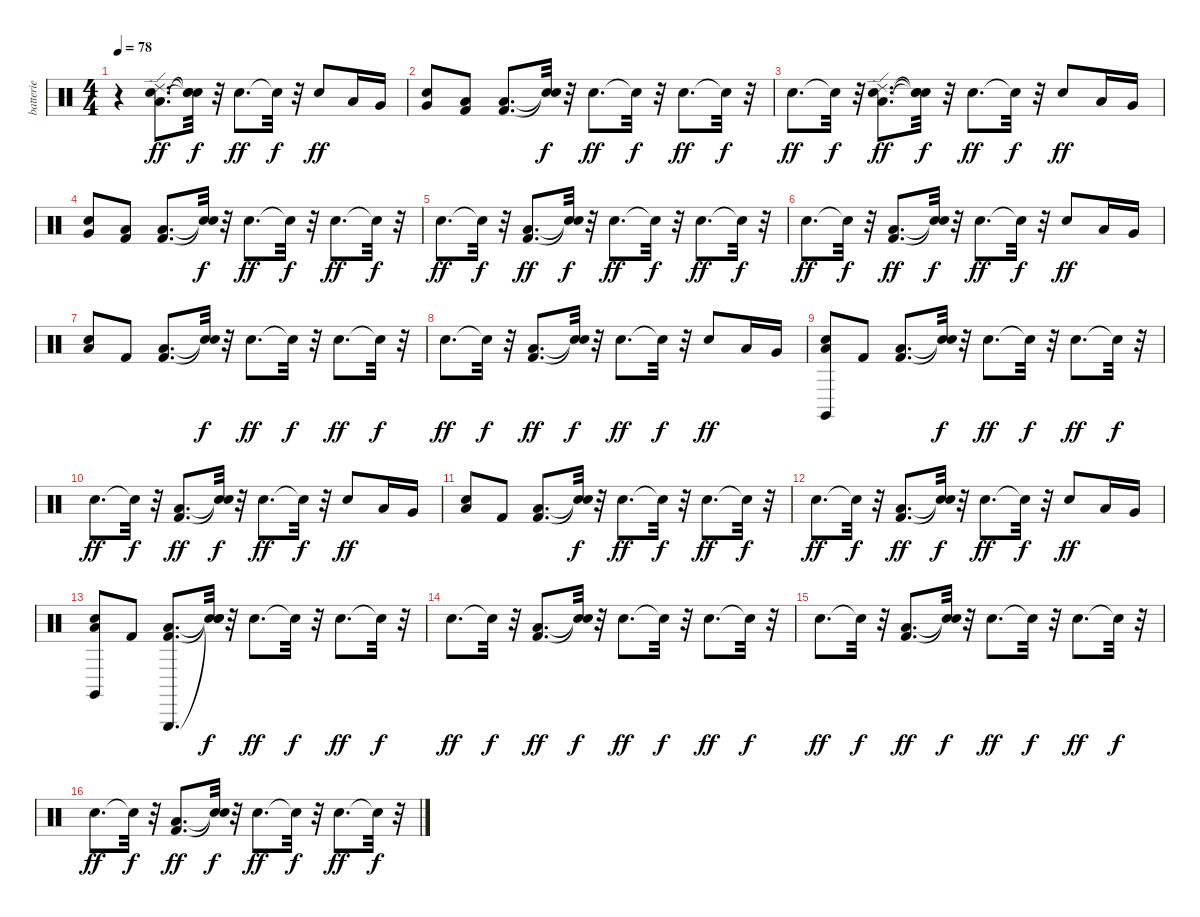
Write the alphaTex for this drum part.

\track ("batterie" "batterie") {instrument percussion}
\staff {score}
\articulation defaults
\ts (4 4)
\tempo 78
\clef neutral
\ks c
r.4{dy ff} ("Hand Clap (hit)" "Low Tom (hit)" "Ride (edge) 2").8{d} ("Snare (hit)"{t} "Snare (hit)"{t} "Snare (hit)"{t}).32{dy f} r.32 "Hand Clap (hit)".8{d dy ff} "Snare (hit)"{t}.32{dy f} r.32 "Hand Clap (hit)".8{dy ff} "Low Tom (hit)".16 "Very Low Tom (hit)".16 |
("Hand Clap (hit)" "Very Low Tom (hit)").8 ("Kick (hit) 2" "Low Floor Tom (hit)").8 ("Kick (hit) 2" "Low Floor Tom (hit)").8{d} ("Snare (hit)"{t} "Snare (hit)"{t}).32{dy f} r.32 "Hand Clap (hit)".8{d dy ff} "Snare (hit)"{t}.32{dy f} r.32 "Hand Clap (hit)".8{d dy ff} "Snare (hit)"{t}.32{dy f} r.32 |
"Hand Clap (hit)".8{d dy ff} "Snare (hit)"{t}.32{dy f} r.32 ("Hand Clap (hit)" "Low Tom (hit)" "Ride (edge) 2").8{d dy ff} ("Snare (hit)"{t} "Snare (hit)"{t} "Snare (hit)"{t}).32{dy f} r.32 "Hand Clap (hit)".8{d dy ff} "Snare (hit)"{t}.32{dy f} r.32 "Hand Clap (hit)".8{dy ff} "Low Tom (hit)".16 "Very Low Tom (hit)".16 |
("Hand Clap (hit)" "Very Low Tom (hit)").8 ("Kick (hit) 2" "Low Floor Tom (hit)").8 ("Kick (hit) 2" "Low Floor Tom (hit)").8{d} ("Snare (hit)"{t} "Snare (hit)"{t}).32{dy f} r.32 "Hand Clap (hit)".8{d dy ff} "Snare (hit)"{t}.32{dy f} r.32 "Hand Clap (hit)".8{d dy ff} "Snare (hit)"{t}.32{dy f} r.32 |
"Hand Clap (hit)".8{d dy ff} "Snare (hit)"{t}.32{dy f} r.32 ("Kick (hit) 2" "Low Floor Tom (hit)").8{d dy ff} ("Snare (hit)"{t} "Snare (hit)"{t}).32{dy f} r.32 "Hand Clap (hit)".8{d dy ff} "Snare (hit)"{t}.32{dy f} r.32 "Hand Clap (hit)".8{d dy ff} "Snare (hit)"{t}.32{dy f} r.32 |
"Hand Clap (hit)".8{d dy ff} "Snare (hit)"{t}.32{dy f} r.32 ("Kick (hit) 2" "Low Floor Tom (hit)").8{d dy ff} ("Snare (hit)"{t} "Snare (hit)"{t}).32{dy f} r.32 "Hand Clap (hit)".8{d dy ff} "Snare (hit)"{t}.32{dy f} r.32 "Hand Clap (hit)".8{dy ff} "Low Tom (hit)".16 "Very Low Tom (hit)".16 |
("Hand Clap (hit)" "Low Floor Tom (hit)").8 "Kick (hit) 2".8 ("Kick (hit) 2" "Low Floor Tom (hit)").8{d} ("Snare (hit)"{t} "Snare (hit)"{t}).32{dy f} r.32 "Hand Clap (hit)".8{d dy ff} "Snare (hit)"{t}.32{dy f} r.32 "Hand Clap (hit)".8{d dy ff} "Snare (hit)"{t}.32{dy f} r.32 |
"Hand Clap (hit)".8{d dy ff} "Snare (hit)"{t}.32{dy f} r.32 ("Kick (hit) 2" "Low Floor Tom (hit)").8{d dy ff} ("Snare (hit)"{t} "Snare (hit)"{t}).32{dy f} r.32 "Hand Clap (hit)".8{d dy ff} "Snare (hit)"{t}.32{dy f} r.32 "Hand Clap (hit)".8{dy ff} "Low Tom (hit)".16 "Very Low Tom (hit)".16 |
("Hand Clap (hit)" "Low Floor Tom (hit)" "Claves (hit)").8 "Kick (hit) 2".8 ("Kick (hit) 2" "Low Floor Tom (hit)").8{d} ("Snare (hit)"{t} "Snare (hit)"{t}).32{dy f} r.32 "Hand Clap (hit)".8{d dy ff} "Snare (hit)"{t}.32{dy f} r.32 "Hand Clap (hit)".8{d dy ff} "Snare (hit)"{t}.32{dy f} r.32 |
"Hand Clap (hit)".8{d dy ff} "Snare (hit)"{t}.32{dy f} r.32 ("Kick (hit) 2" "Low Floor Tom (hit)").8{d dy ff} ("Snare (hit)"{t} "Snare (hit)"{t}).32{dy f} r.32 "Hand Clap (hit)".8{d dy ff} "Snare (hit)"{t}.32{dy f} r.32 "Hand Clap (hit)".8{dy ff} "Low Tom (hit)".16 "Very Low Tom (hit)".16 |
("Hand Clap (hit)" "Low Floor Tom (hit)").8 "Kick (hit) 2".8 ("Kick (hit) 2" "Low Floor Tom (hit)").8{d} ("Snare (hit)"{t} "Snare (hit)"{t}).32{dy f} r.32 "Hand Clap (hit)".8{d dy ff} "Snare (hit)"{t}.32{dy f} r.32 "Hand Clap (hit)".8{d dy ff} "Snare (hit)"{t}.32{dy f} r.32 |
"Hand Clap (hit)".8{d dy ff} "Snare (hit)"{t}.32{dy f} r.32 ("Kick (hit) 2" "Low Floor Tom (hit)").8{d dy ff} ("Snare (hit)"{t} "Snare (hit)"{t}).32{dy f} r.32 "Hand Clap (hit)".8{d dy ff} "Snare (hit)"{t}.32{dy f} r.32 "Hand Clap (hit)".8{dy ff} "Low Tom (hit)".16 "Very Low Tom (hit)".16 |
("Hand Clap (hit)" "Low Floor Tom (hit)" "Claves (hit)").8 "Kick (hit) 2".8 ("Kick (hit) 2" "Low Floor Tom (hit)" "Triangle (hit)").8{d} ("Snare (hit)"{t} "Snare (hit)"{t} "Snare (hit)"{t}).32{dy f} r.32 "Hand Clap (hit)".8{d dy ff} "Snare (hit)"{t}.32{dy f} r.32 "Hand Clap (hit)".8{d dy ff} "Snare (hit)"{t}.32{dy f} r.32 |
"Hand Clap (hit)".8{d dy ff} "Snare (hit)"{t}.32{dy f} r.32 ("Kick (hit) 2" "Low Floor Tom (hit)").8{d dy ff} ("Snare (hit)"{t} "Snare (hit)"{t}).32{dy f} r.32 "Hand Clap (hit)".8{d dy ff} "Snare (hit)"{t}.32{dy f} r.32 "Hand Clap (hit)".8{d dy ff} "Snare (hit)"{t}.32{dy f} r.32 |
"Hand Clap (hit)".8{d dy ff} "Snare (hit)"{t}.32{dy f} r.32 ("Kick (hit) 2" "Low Floor Tom (hit)").8{d dy ff} ("Snare (hit)"{t} "Snare (hit)"{t}).32{dy f} r.32 "Hand Clap (hit)".8{d dy ff} "Snare (hit)"{t}.32{dy f} r.32 "Hand Clap (hit)".8{d dy ff} "Snare (hit)"{t}.32{dy f} r.32 |
"Hand Clap (hit)".8{d dy ff} "Snare (hit)"{t}.32{dy f} r.32 ("Kick (hit) 2" "Low Floor Tom (hit)").8{d dy ff} ("Snare (hit)"{t} "Snare (hit)"{t}).32{dy f} r.32 "Hand Clap (hit)".8{d dy ff} "Snare (hit)"{t}.32{dy f} r.32 "Hand Clap (hit)".8{d dy ff} "Snare (hit)"{t}.32{dy f} r.32
